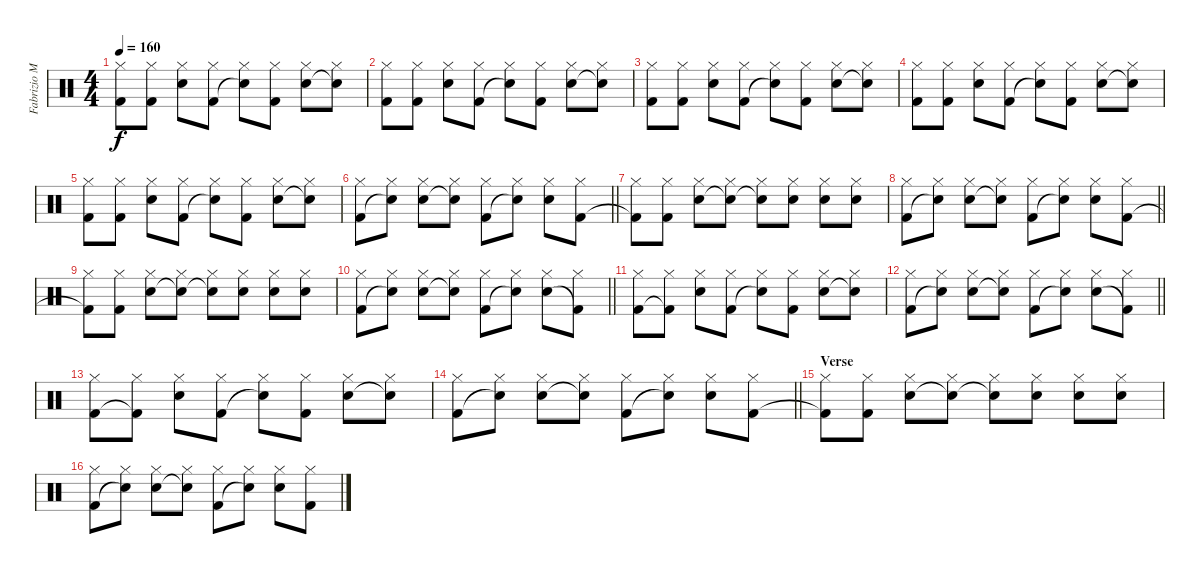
\track ("Fabrizio Moretti" "Fabrizio M") {instrument percussion}
\staff {score}
\articulation defaults
\ts (4 4)
\tempo 160
\clef neutral
\ks c
("Hi-Hat (closed)" "Kick (hit) 2").8{dy f} ("Hi-Hat (closed)" "Kick (hit) 2").8 ("Hi-Hat (closed)" "Electric Snare (hit)").8 ("Hi-Hat (closed)" "Kick (hit) 2").8 ("Hi-Hat (closed)" "Snare (hit)"{t}).8 ("Hi-Hat (closed)" "Kick (hit) 2").8 ("Hi-Hat (closed)" "Electric Snare (hit)").8 ("Hi-Hat (closed)" "Snare (hit)"{t}).8 |
("Hi-Hat (closed)" "Kick (hit) 2").8 ("Hi-Hat (closed)" "Kick (hit) 2").8 ("Hi-Hat (closed)" "Electric Snare (hit)").8 ("Hi-Hat (closed)" "Kick (hit) 2").8 ("Hi-Hat (closed)" "Snare (hit)"{t}).8 ("Hi-Hat (closed)" "Kick (hit) 2").8 ("Hi-Hat (closed)" "Electric Snare (hit)").8 ("Hi-Hat (closed)" "Snare (hit)"{t}).8 |
("Hi-Hat (closed)" "Kick (hit) 2").8 ("Hi-Hat (closed)" "Kick (hit) 2").8 ("Hi-Hat (closed)" "Electric Snare (hit)").8 ("Hi-Hat (closed)" "Kick (hit) 2").8 ("Hi-Hat (closed)" "Snare (hit)"{t}).8 ("Hi-Hat (closed)" "Kick (hit) 2").8 ("Hi-Hat (closed)" "Electric Snare (hit)").8 ("Hi-Hat (closed)" "Snare (hit)"{t}).8 |
("Hi-Hat (closed)" "Kick (hit) 2").8 ("Hi-Hat (closed)" "Kick (hit) 2").8 ("Hi-Hat (closed)" "Electric Snare (hit)").8 ("Hi-Hat (closed)" "Kick (hit) 2").8 ("Hi-Hat (closed)" "Snare (hit)"{t}).8 ("Hi-Hat (closed)" "Kick (hit) 2").8 ("Hi-Hat (closed)" "Electric Snare (hit)").8 ("Hi-Hat (closed)" "Snare (hit)"{t}).8 |
("Hi-Hat (closed)" "Kick (hit) 2").8 ("Hi-Hat (closed)" "Kick (hit) 2").8 ("Hi-Hat (closed)" "Electric Snare (hit)").8 ("Hi-Hat (closed)" "Kick (hit) 2").8 ("Hi-Hat (closed)" "Snare (hit)"{t}).8 ("Hi-Hat (closed)" "Kick (hit) 2").8 ("Hi-Hat (closed)" "Electric Snare (hit)").8 ("Hi-Hat (closed)" "Snare (hit)"{t}).8 |
\barLineRight lightlight
("Hi-Hat (closed)" "Kick (hit) 2").8 ("Hi-Hat (closed)" "Snare (hit)"{t}).8 ("Hi-Hat (closed)" "Electric Snare (hit)").8 ("Hi-Hat (closed)" "Snare (hit)"{t}).8 ("Hi-Hat (closed)" "Kick (hit) 2").8 ("Hi-Hat (closed)" "Snare (hit)"{t}).8 ("Hi-Hat (closed)" "Electric Snare (hit)").8 ("Hi-Hat (closed)" "Kick (hit) 2").8 |
("Hi-Hat (closed)" "Kick (hit) 2"{t}).8 ("Hi-Hat (closed)" "Kick (hit) 2").8 ("Hi-Hat (closed)" "Electric Snare (hit)").8 ("Hi-Hat (closed)" "Snare (hit)"{t}).8 ("Hi-Hat (closed)" "Snare (hit)"{t}).8 ("Hi-Hat (closed)" "Electric Snare (hit)").8 ("Hi-Hat (closed)" "Electric Snare (hit)").8 ("Hi-Hat (closed)" "Electric Snare (hit)").8 |
\barLineRight lightlight
("Hi-Hat (closed)" "Kick (hit) 2").8 ("Hi-Hat (closed)" "Snare (hit)"{t}).8 ("Hi-Hat (closed)" "Electric Snare (hit)").8 ("Hi-Hat (closed)" "Snare (hit)"{t}).8 ("Hi-Hat (closed)" "Kick (hit) 2").8 ("Hi-Hat (closed)" "Snare (hit)"{t}).8 ("Hi-Hat (closed)" "Electric Snare (hit)").8 ("Hi-Hat (closed)" "Kick (hit) 2").8 |
("Hi-Hat (closed)" "Kick (hit) 2"{t}).8 ("Hi-Hat (closed)" "Kick (hit) 2").8 ("Hi-Hat (closed)" "Electric Snare (hit)").8 ("Hi-Hat (closed)" "Snare (hit)"{t}).8 ("Hi-Hat (closed)" "Snare (hit)"{t}).8 ("Hi-Hat (closed)" "Electric Snare (hit)").8 ("Hi-Hat (closed)" "Electric Snare (hit)").8 ("Hi-Hat (closed)" "Electric Snare (hit)").8 |
\barLineRight lightlight
("Hi-Hat (closed)" "Kick (hit) 2").8 ("Hi-Hat (closed)" "Snare (hit)"{t}).8 ("Hi-Hat (closed)" "Electric Snare (hit)").8 ("Hi-Hat (closed)" "Snare (hit)"{t}).8 ("Hi-Hat (closed)" "Kick (hit) 2").8 ("Hi-Hat (closed)" "Snare (hit)"{t}).8 ("Hi-Hat (closed)" "Electric Snare (hit)").8 ("Hi-Hat (closed)" "Kick (hit) 2"{t}).8 |
("Hi-Hat (closed)" "Kick (hit) 2").8 ("Hi-Hat (closed)" "Kick (hit) 2"{t}).8 ("Hi-Hat (closed)" "Electric Snare (hit)").8 ("Hi-Hat (closed)" "Kick (hit) 2").8 ("Hi-Hat (closed)" "Snare (hit)"{t}).8 ("Hi-Hat (closed)" "Kick (hit) 2").8 ("Hi-Hat (closed)" "Electric Snare (hit)").8 ("Hi-Hat (closed)" "Electric Snare (hit)"{t}).8 |
\barLineRight lightlight
("Hi-Hat (closed)" "Kick (hit) 2").8 ("Hi-Hat (closed)" "Snare (hit)"{t}).8 ("Hi-Hat (closed)" "Electric Snare (hit)").8 ("Hi-Hat (closed)" "Snare (hit)"{t}).8 ("Hi-Hat (closed)" "Kick (hit) 2").8 ("Hi-Hat (closed)" "Snare (hit)"{t}).8 ("Hi-Hat (closed)" "Electric Snare (hit)").8 ("Hi-Hat (closed)" "Kick (hit) 2"{t}).8 |
("Hi-Hat (closed)" "Kick (hit) 2").8 ("Hi-Hat (closed)" "Kick (hit) 2"{t}).8 ("Hi-Hat (closed)" "Electric Snare (hit)").8 ("Hi-Hat (closed)" "Kick (hit) 2").8 ("Hi-Hat (closed)" "Snare (hit)"{t}).8 ("Hi-Hat (closed)" "Kick (hit) 2").8 ("Hi-Hat (closed)" "Electric Snare (hit)").8 ("Hi-Hat (closed)" "Electric Snare (hit)"{t}).8 |
\barLineRight lightlight
("Hi-Hat (closed)" "Kick (hit) 2").8 ("Hi-Hat (closed)" "Snare (hit)"{t}).8 ("Hi-Hat (closed)" "Electric Snare (hit)").8 ("Hi-Hat (closed)" "Snare (hit)"{t}).8 ("Hi-Hat (closed)" "Kick (hit) 2").8 ("Hi-Hat (closed)" "Snare (hit)"{t}).8 ("Hi-Hat (closed)" "Electric Snare (hit)").8 ("Hi-Hat (closed)" "Kick (hit) 2").8 |
\section ("" "Verse")
("Hi-Hat (closed)" "Kick (hit) 2"{t}).8 ("Hi-Hat (closed)" "Kick (hit) 2").8 ("Hi-Hat (closed)" "Electric Snare (hit)").8 ("Hi-Hat (closed)" "Snare (hit)"{t}).8 ("Hi-Hat (closed)" "Snare (hit)"{t}).8 ("Hi-Hat (closed)" "Electric Snare (hit)").8 ("Hi-Hat (closed)" "Electric Snare (hit)").8 ("Hi-Hat (closed)" "Electric Snare (hit)").8 |
("Hi-Hat (closed)" "Kick (hit) 2").8 ("Hi-Hat (closed)" "Snare (hit)"{t}).8 ("Hi-Hat (closed)" "Electric Snare (hit)").8 ("Hi-Hat (closed)" "Snare (hit)"{t}).8 ("Hi-Hat (closed)" "Kick (hit) 2").8 ("Hi-Hat (closed)" "Snare (hit)"{t}).8 ("Hi-Hat (closed)" "Electric Snare (hit)").8 ("Hi-Hat (closed)" "Kick (hit) 2").8
